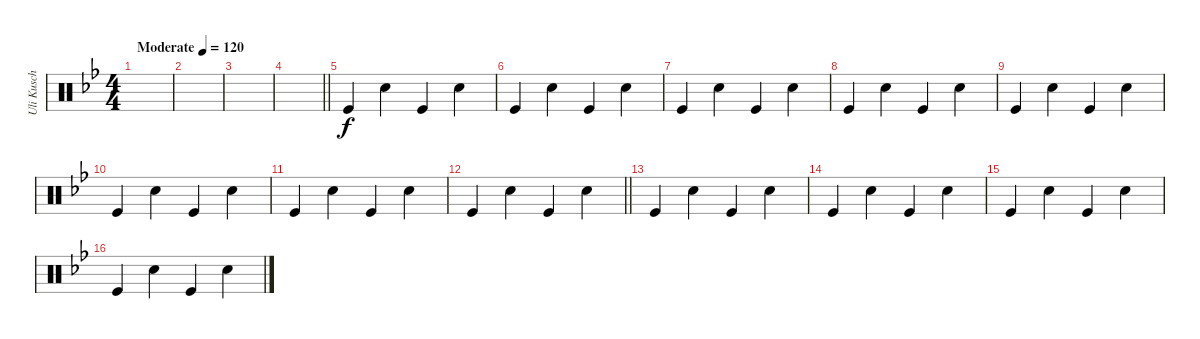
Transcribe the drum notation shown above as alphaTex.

\track ("Uli Kusch" "Uli Kusch") {instrument percussion}
\staff {score}
\articulation defaults
\ts (4 4)
\tempo (120 "Moderate")
\clef neutral
\ks gminor
|
|
|
\barLineRight lightlight
|
"Kick (hit)".4 "Snare (hit) 2".4 "Kick (hit)".4 "Snare (hit) 2".4 |
"Kick (hit)".4 "Snare (hit) 2".4 "Kick (hit)".4 "Snare (hit) 2".4 |
"Kick (hit)".4 "Snare (hit) 2".4 "Kick (hit)".4 "Snare (hit) 2".4 |
"Kick (hit)".4 "Snare (hit) 2".4 "Kick (hit)".4 "Snare (hit) 2".4 |
"Kick (hit)".4 "Snare (hit) 2".4 "Kick (hit)".4 "Snare (hit) 2".4 |
"Kick (hit)".4 "Snare (hit) 2".4 "Kick (hit)".4 "Snare (hit) 2".4 |
"Kick (hit)".4 "Snare (hit) 2".4 "Kick (hit)".4 "Snare (hit) 2".4 |
\barLineRight lightlight "Kick (hit)".4 "Snare (hit) 2".4 "Kick (hit)".4 "Snare (hit) 2".4
|
"Kick (hit)".4 "Snare (hit) 2".4 "Kick (hit)".4 "Snare (hit) 2".4 |
"Kick (hit)".4 "Snare (hit) 2".4 "Kick (hit)".4 "Snare (hit) 2".4 |
"Kick (hit)".4 "Snare (hit) 2".4 "Kick (hit)".4 "Snare (hit) 2".4 |
"Kick (hit)".4 "Snare (hit) 2".4 "Kick (hit)".4 "Snare (hit) 2".4
